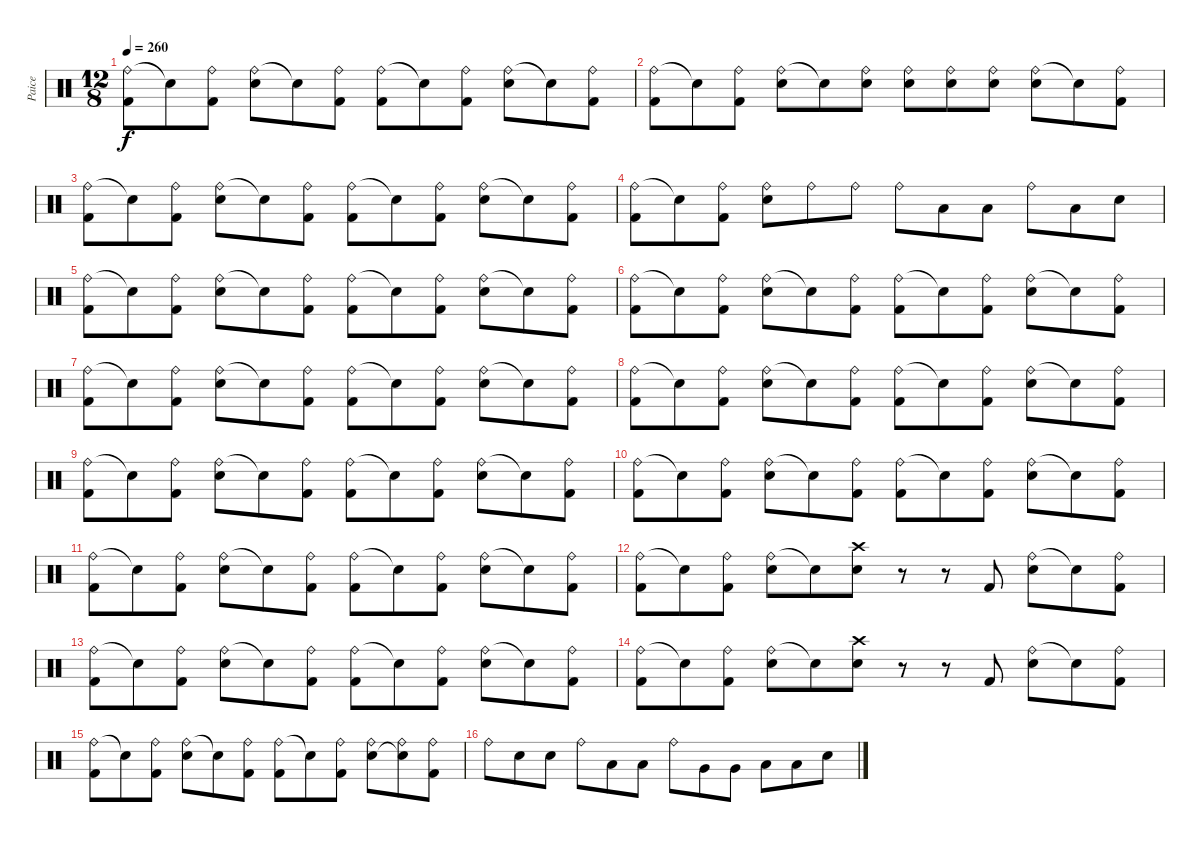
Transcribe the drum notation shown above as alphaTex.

\track ("Paice" "Paice") {instrument percussion}
\staff {score}
\articulation defaults
\ts (12 8)
\tempo 260
\clef neutral
\ks c
("Ride (bell)" "Kick (hit) 2").8{dy f} "Snare (hit)"{t}.8 ("Ride (bell)" "Kick (hit) 2").8 ("Ride (bell)" "Electric Snare (hit)").8 "Snare (hit)"{t}.8 ("Ride (bell)" "Kick (hit) 2").8 ("Ride (bell)" "Kick (hit) 2").8 "Snare (hit)"{t}.8 ("Ride (bell)" "Kick (hit) 2").8 ("Ride (bell)" "Electric Snare (hit)").8 "Snare (hit)"{t}.8 ("Ride (bell)" "Kick (hit) 2").8 |
("Ride (bell)" "Kick (hit) 2").8 "Snare (hit)"{t}.8 ("Ride (bell)" "Kick (hit) 2").8 ("Ride (bell)" "Electric Snare (hit)").8 "Snare (hit)"{t}.8 ("Ride (bell)" "Electric Snare (hit)").8 ("Ride (bell)" "Electric Snare (hit)").8 ("Ride (bell)" "Electric Snare (hit)").8 ("Ride (bell)" "Electric Snare (hit)").8 ("Ride (bell)" "Electric Snare (hit)").8 "Snare (hit)"{t}.8 ("Ride (bell)" "Kick (hit) 2").8 |
("Ride (bell)" "Kick (hit) 2").8 "Snare (hit)"{t}.8 ("Ride (bell)" "Kick (hit) 2").8 ("Ride (bell)" "Electric Snare (hit)").8 "Snare (hit)"{t}.8 ("Ride (bell)" "Kick (hit) 2").8 ("Ride (bell)" "Kick (hit) 2").8 "Snare (hit)"{t}.8 ("Ride (bell)" "Kick (hit) 2").8 ("Ride (bell)" "Electric Snare (hit)").8 "Snare (hit)"{t}.8 ("Ride (bell)" "Kick (hit) 2").8 |
("Ride (bell)" "Kick (hit) 2").8 "Snare (hit)"{t}.8 ("Ride (bell)" "Kick (hit) 2").8 ("Ride (bell)" "Electric Snare (hit)").8 "Ride (bell)".8 "Ride (bell)".8 "Ride (bell)".8 "Low Tom (hit)".8 "Low Tom (hit)".8 "Ride (bell)".8 "Low Tom (hit)".8 "Electric Snare (hit)".8 |
("Ride (bell)" "Kick (hit) 2").8 "Snare (hit)"{t}.8 ("Ride (bell)" "Kick (hit) 2").8 ("Ride (bell)" "Electric Snare (hit)").8 "Snare (hit)"{t}.8 ("Ride (bell)" "Kick (hit) 2").8 ("Ride (bell)" "Kick (hit) 2").8 "Snare (hit)"{t}.8 ("Ride (bell)" "Kick (hit) 2").8 ("Ride (bell)" "Electric Snare (hit)").8 "Snare (hit)"{t}.8 ("Ride (bell)" "Kick (hit) 2").8 |
("Ride (bell)" "Kick (hit) 2").8 "Snare (hit)"{t}.8 ("Ride (bell)" "Kick (hit) 2").8 ("Ride (bell)" "Electric Snare (hit)").8 "Snare (hit)"{t}.8 ("Ride (bell)" "Kick (hit) 2").8 ("Ride (bell)" "Kick (hit) 2").8 "Snare (hit)"{t}.8 ("Ride (bell)" "Kick (hit) 2").8 ("Ride (bell)" "Electric Snare (hit)").8 "Snare (hit)"{t}.8 ("Ride (bell)" "Kick (hit) 2").8 |
("Ride (bell)" "Kick (hit) 2").8 "Snare (hit)"{t}.8 ("Ride (bell)" "Kick (hit) 2").8 ("Ride (bell)" "Electric Snare (hit)").8 "Snare (hit)"{t}.8 ("Ride (bell)" "Kick (hit) 2").8 ("Ride (bell)" "Kick (hit) 2").8 "Snare (hit)"{t}.8 ("Ride (bell)" "Kick (hit) 2").8 ("Ride (bell)" "Electric Snare (hit)").8 "Snare (hit)"{t}.8 ("Ride (bell)" "Kick (hit) 2").8 |
("Ride (bell)" "Kick (hit) 2").8 "Snare (hit)"{t}.8 ("Ride (bell)" "Kick (hit) 2").8 ("Ride (bell)" "Electric Snare (hit)").8 "Snare (hit)"{t}.8 ("Ride (bell)" "Kick (hit) 2").8 ("Ride (bell)" "Kick (hit) 2").8 "Snare (hit)"{t}.8 ("Ride (bell)" "Kick (hit) 2").8 ("Ride (bell)" "Electric Snare (hit)").8 "Snare (hit)"{t}.8 ("Ride (bell)" "Kick (hit) 2").8 |
("Ride (bell)" "Kick (hit) 2").8 "Snare (hit)"{t}.8 ("Ride (bell)" "Kick (hit) 2").8 ("Ride (bell)" "Electric Snare (hit)").8 "Snare (hit)"{t}.8 ("Ride (bell)" "Kick (hit) 2").8 ("Ride (bell)" "Kick (hit) 2").8 "Snare (hit)"{t}.8 ("Ride (bell)" "Kick (hit) 2").8 ("Ride (bell)" "Electric Snare (hit)").8 "Snare (hit)"{t}.8 ("Ride (bell)" "Kick (hit) 2").8 |
("Ride (bell)" "Kick (hit) 2").8 "Snare (hit)"{t}.8 ("Ride (bell)" "Kick (hit) 2").8 ("Ride (bell)" "Electric Snare (hit)").8 "Snare (hit)"{t}.8 ("Ride (bell)" "Kick (hit) 2").8 ("Ride (bell)" "Kick (hit) 2").8 "Snare (hit)"{t}.8 ("Ride (bell)" "Kick (hit) 2").8 ("Ride (bell)" "Electric Snare (hit)").8 "Snare (hit)"{t}.8 ("Ride (bell)" "Kick (hit) 2").8 |
("Ride (bell)" "Kick (hit) 2").8 "Snare (hit)"{t}.8 ("Ride (bell)" "Kick (hit) 2").8 ("Ride (bell)" "Electric Snare (hit)").8 "Snare (hit)"{t}.8 ("Ride (bell)" "Kick (hit) 2").8 ("Ride (bell)" "Kick (hit) 2").8 "Snare (hit)"{t}.8 ("Ride (bell)" "Kick (hit) 2").8 ("Ride (bell)" "Electric Snare (hit)").8 "Snare (hit)"{t}.8 ("Ride (bell)" "Kick (hit) 2").8 |
("Ride (bell)" "Kick (hit) 2").8 "Snare (hit)"{t}.8 ("Ride (bell)" "Kick (hit) 2").8 ("Ride (bell)" "Electric Snare (hit)").8 "Snare (hit)"{t}.8 ("Crash high (hit)" "Electric Snare (hit)").8 r.8 r.8 "Kick (hit) 2".8 ("Ride (bell)" "Electric Snare (hit)").8 "Snare (hit)"{t}.8 ("Ride (bell)" "Kick (hit) 2").8 |
("Ride (bell)" "Kick (hit) 2").8 "Snare (hit)"{t}.8 ("Ride (bell)" "Kick (hit) 2").8 ("Ride (bell)" "Electric Snare (hit)").8 "Snare (hit)"{t}.8 ("Ride (bell)" "Kick (hit) 2").8 ("Ride (bell)" "Kick (hit) 2").8 "Snare (hit)"{t}.8 ("Ride (bell)" "Kick (hit) 2").8 ("Ride (bell)" "Electric Snare (hit)").8 "Snare (hit)"{t}.8 ("Ride (bell)" "Kick (hit) 2").8 |
("Ride (bell)" "Kick (hit) 2").8 "Snare (hit)"{t}.8 ("Ride (bell)" "Kick (hit) 2").8 ("Ride (bell)" "Electric Snare (hit)").8 "Snare (hit)"{t}.8 ("Crash high (hit)" "Electric Snare (hit)").8 r.8 r.8 "Kick (hit) 2".8 ("Ride (bell)" "Electric Snare (hit)").8 "Snare (hit)"{t}.8 ("Ride (bell)" "Kick (hit) 2").8 |
("Ride (bell)" "Kick (hit) 2").8 "Snare (hit)"{t}.8 ("Ride (bell)" "Kick (hit) 2").8 ("Ride (bell)" "Electric Snare (hit)").8 "Snare (hit)"{t}.8 ("Ride (bell)" "Kick (hit) 2").8 ("Ride (bell)" "Kick (hit) 2").8 "Snare (hit)"{t}.8 ("Ride (bell)" "Kick (hit) 2").8 ("Ride (bell)" "Electric Snare (hit)").8 ("Ride (bell)" "Snare (hit)"{t}).8 ("Ride (bell)" "Kick (hit) 2").8 |
"Ride (bell)".8 "Electric Snare (hit)".8 "Electric Snare (hit)".8 "Ride (bell)".8 "Low Tom (hit)".8 "Low Tom (hit)".8 "Ride (bell)".8 "Very Low Tom (hit)".8 "Very Low Tom (hit)".8 "Low Floor Tom (hit)".8 "Low Floor Tom (hit)".8 "Electric Snare (hit)".8
